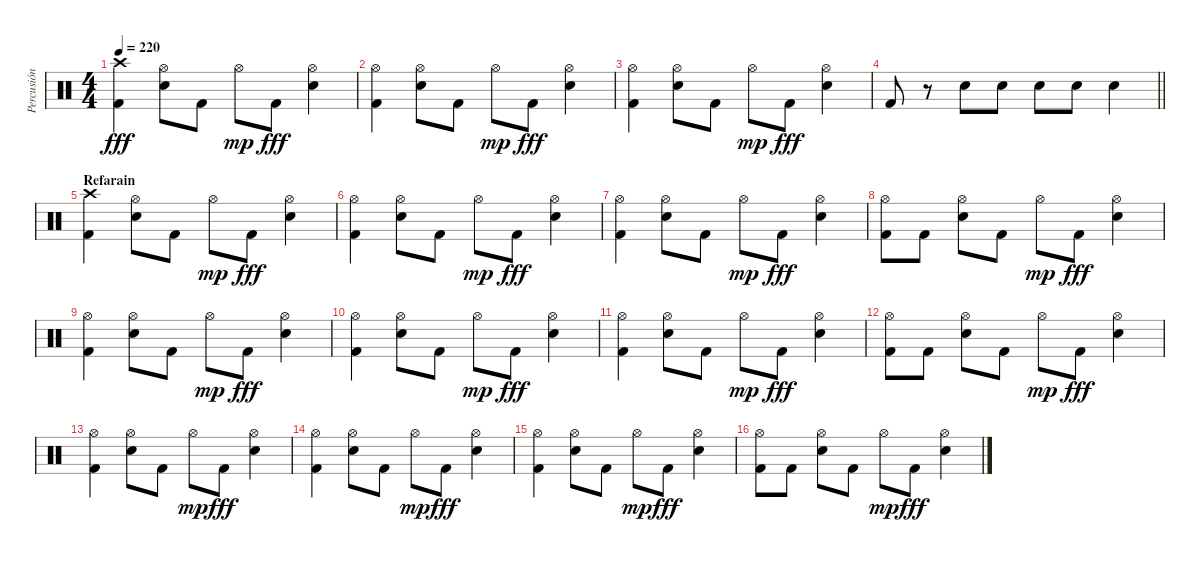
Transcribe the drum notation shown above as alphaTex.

\track ("Percusión" "Percusión") {instrument percussion}
\staff {score}
\articulation defaults
\ts (4 4)
\tempo 220
\clef neutral
\ks c
("Crash high (hit)" "Kick (hit) 2").4{dy fff} ("Hi-Hat (open)" "Snare (hit) 2").8 "Kick (hit) 2".8 "Hi-Hat (open)".8{dy mp} "Kick (hit) 2".8{dy fff} ("Hi-Hat (open)" "Snare (hit) 2").4 |
("Hi-Hat (open)" "Kick (hit) 2").4 ("Hi-Hat (open)" "Snare (hit) 2").8 "Kick (hit) 2".8 "Hi-Hat (open)".8{dy mp} "Kick (hit) 2".8{dy fff} ("Hi-Hat (open)" "Snare (hit) 2").4 |
("Hi-Hat (open)" "Kick (hit) 2").4 ("Hi-Hat (open)" "Snare (hit) 2").8 "Kick (hit) 2".8 "Hi-Hat (open)".8{dy mp} "Kick (hit) 2".8{dy fff} ("Hi-Hat (open)" "Snare (hit) 2").4 |
\barLineRight lightlight "Kick (hit) 2".8
r.8 "Snare (hit) 2".8 "Snare (hit) 2".8 "Snare (hit) 2".8 "Snare (hit) 2".8 "Snare (hit) 2".4 |
\section ("" "Refarain")
("Crash high (hit)" "Kick (hit) 2").4 ("Hi-Hat (open)" "Snare (hit) 2").8 "Kick (hit) 2".8 "Hi-Hat (open)".8{dy mp} "Kick (hit) 2".8{dy fff} ("Hi-Hat (open)" "Snare (hit) 2").4 |
("Hi-Hat (open)" "Kick (hit) 2").4 ("Hi-Hat (open)" "Snare (hit) 2").8 "Kick (hit) 2".8 "Hi-Hat (open)".8{dy mp} "Kick (hit) 2".8{dy fff} ("Hi-Hat (open)" "Snare (hit) 2").4 |
("Hi-Hat (open)" "Kick (hit) 2").4 ("Hi-Hat (open)" "Snare (hit) 2").8 "Kick (hit) 2".8 "Hi-Hat (open)".8{dy mp} "Kick (hit) 2".8{dy fff} ("Hi-Hat (open)" "Snare (hit) 2").4 |
("Hi-Hat (open)" "Kick (hit) 2").8 "Kick (hit) 2".8 ("Hi-Hat (open)" "Snare (hit) 2").8 "Kick (hit) 2".8 "Hi-Hat (open)".8{dy mp} "Kick (hit) 2".8{dy fff} ("Hi-Hat (open)" "Snare (hit) 2").4 |
("Hi-Hat (open)" "Kick (hit) 2").4 ("Hi-Hat (open)" "Snare (hit) 2").8 "Kick (hit) 2".8 "Hi-Hat (open)".8{dy mp} "Kick (hit) 2".8{dy fff} ("Hi-Hat (open)" "Snare (hit) 2").4 |
("Hi-Hat (open)" "Kick (hit) 2").4 ("Hi-Hat (open)" "Snare (hit) 2").8 "Kick (hit) 2".8 "Hi-Hat (open)".8{dy mp} "Kick (hit) 2".8{dy fff} ("Hi-Hat (open)" "Snare (hit) 2").4 |
("Hi-Hat (open)" "Kick (hit) 2").4 ("Hi-Hat (open)" "Snare (hit) 2").8 "Kick (hit) 2".8 "Hi-Hat (open)".8{dy mp} "Kick (hit) 2".8{dy fff} ("Hi-Hat (open)" "Snare (hit) 2").4 |
("Hi-Hat (open)" "Kick (hit) 2").8 "Kick (hit) 2".8 ("Hi-Hat (open)" "Snare (hit) 2").8 "Kick (hit) 2".8 "Hi-Hat (open)".8{dy mp} "Kick (hit) 2".8{dy fff} ("Hi-Hat (open)" "Snare (hit) 2").4 |
("Hi-Hat (open)" "Kick (hit) 2").4 ("Hi-Hat (open)" "Snare (hit) 2").8 "Kick (hit) 2".8 "Hi-Hat (open)".8{dy mp} "Kick (hit) 2".8{dy fff} ("Hi-Hat (open)" "Snare (hit) 2").4 |
("Hi-Hat (open)" "Kick (hit) 2").4 ("Hi-Hat (open)" "Snare (hit) 2").8 "Kick (hit) 2".8 "Hi-Hat (open)".8{dy mp} "Kick (hit) 2".8{dy fff} ("Hi-Hat (open)" "Snare (hit) 2").4 |
("Hi-Hat (open)" "Kick (hit) 2").4 ("Hi-Hat (open)" "Snare (hit) 2").8 "Kick (hit) 2".8 "Hi-Hat (open)".8{dy mp} "Kick (hit) 2".8{dy fff} ("Hi-Hat (open)" "Snare (hit) 2").4 |
("Hi-Hat (open)" "Kick (hit) 2").8 "Kick (hit) 2".8 ("Hi-Hat (open)" "Snare (hit) 2").8 "Kick (hit) 2".8 "Hi-Hat (open)".8{dy mp} "Kick (hit) 2".8{dy fff} ("Hi-Hat (open)" "Snare (hit) 2").4
